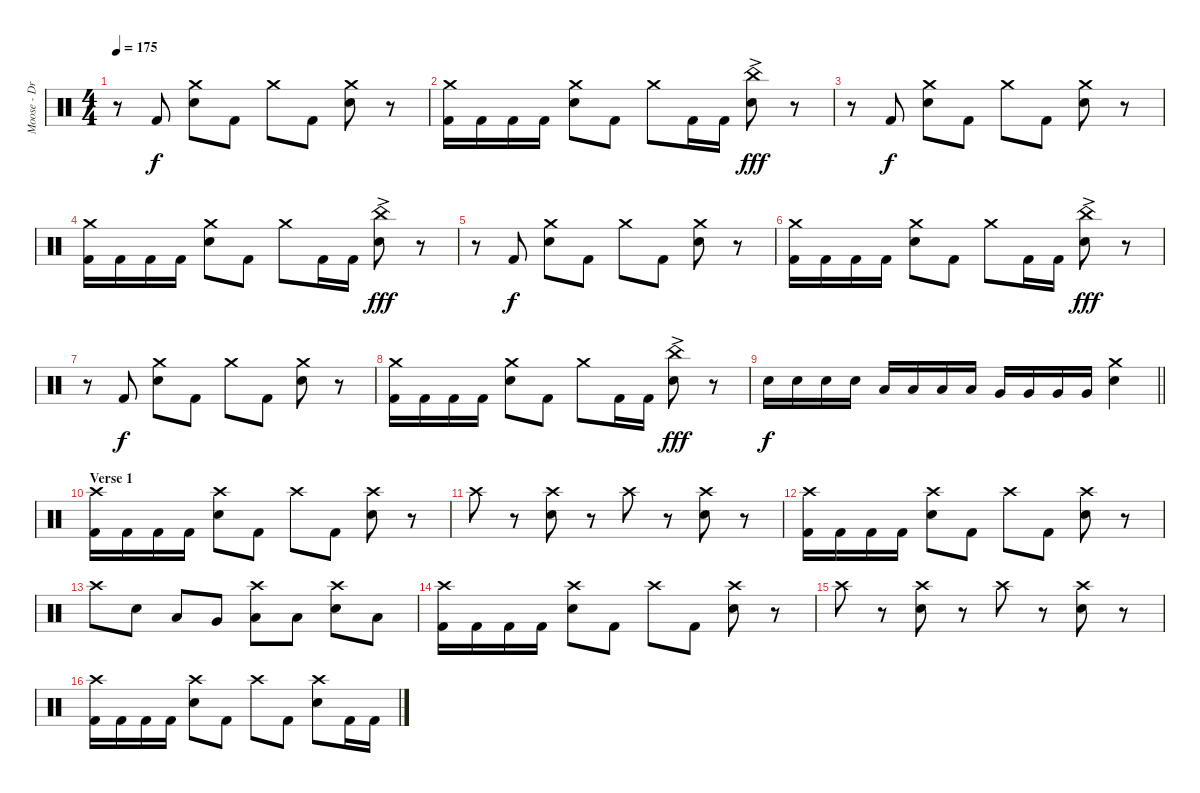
\track ("Moose - Drums" "Moose - Dr") {instrument percussion}
\staff {score}
\articulation defaults
\ts (4 4)
\tempo 175
\clef neutral
\ks c
r.8{dy fff} "Kick (hit) 2".8{dy f} ("Crash medium (hit)" "Electric Snare (hit)").8 "Kick (hit) 2".8 "Crash medium (hit)".8 "Kick (hit) 2".8 ("Crash medium (hit)" "Electric Snare (hit)").8 r.8 |
("Crash medium (hit)" "Kick (hit) 2").16 "Kick (hit) 2".16 "Kick (hit) 2".16 "Kick (hit) 2".16 ("Crash medium (hit)" "Electric Snare (hit)").8 "Kick (hit) 2".8 "Crash medium (hit)".8 "Kick (hit) 2".16 "Kick (hit) 2".16 ("China (hit)"{ac} "Electric Snare (hit)").8{dy fff} r.8 |
r.8 "Kick (hit) 2".8{dy f} ("Crash medium (hit)" "Electric Snare (hit)").8 "Kick (hit) 2".8 "Crash medium (hit)".8 "Kick (hit) 2".8 ("Crash medium (hit)" "Electric Snare (hit)").8 r.8 |
("Crash medium (hit)" "Kick (hit) 2").16 "Kick (hit) 2".16 "Kick (hit) 2".16 "Kick (hit) 2".16 ("Crash medium (hit)" "Electric Snare (hit)").8 "Kick (hit) 2".8 "Crash medium (hit)".8 "Kick (hit) 2".16 "Kick (hit) 2".16 ("China (hit)"{ac} "Electric Snare (hit)").8{dy fff} r.8 |
r.8 "Kick (hit) 2".8{dy f} ("Crash medium (hit)" "Electric Snare (hit)").8 "Kick (hit) 2".8 "Crash medium (hit)".8 "Kick (hit) 2".8 ("Crash medium (hit)" "Electric Snare (hit)").8 r.8 |
("Crash medium (hit)" "Kick (hit) 2").16 "Kick (hit) 2".16 "Kick (hit) 2".16 "Kick (hit) 2".16 ("Crash medium (hit)" "Electric Snare (hit)").8 "Kick (hit) 2".8 "Crash medium (hit)".8 "Kick (hit) 2".16 "Kick (hit) 2".16 ("China (hit)"{ac} "Electric Snare (hit)").8{dy fff} r.8 |
r.8 "Kick (hit) 2".8{dy f} ("Crash medium (hit)" "Electric Snare (hit)").8 "Kick (hit) 2".8 "Crash medium (hit)".8 "Kick (hit) 2".8 ("Crash medium (hit)" "Electric Snare (hit)").8 r.8 |
("Crash medium (hit)" "Kick (hit) 2").16 "Kick (hit) 2".16 "Kick (hit) 2".16 "Kick (hit) 2".16 ("Crash medium (hit)" "Electric Snare (hit)").8 "Kick (hit) 2".8 "Crash medium (hit)".8 "Kick (hit) 2".16 "Kick (hit) 2".16 ("China (hit)"{ac} "Electric Snare (hit)").8{dy fff} r.8 |
\barLineRight lightlight "Electric Snare (hit)".16{dy f} "Electric Snare (hit)".16 "Electric Snare (hit)".16 "Electric Snare (hit)".16 "Low Tom (hit)".16 "Low Tom (hit)".16 "Low Tom (hit)".16 "Low Tom (hit)".16 "Very Low Tom (hit)".16 "Very Low Tom (hit)".16 "Very Low Tom (hit)".16 "Very Low Tom (hit)".16
("Crash medium (hit)" "Electric Snare (hit)").4 |
\section ("" "Verse 1")
("Crash high (hit)" "Kick (hit) 2").16 "Kick (hit) 2".16 "Kick (hit) 2".16 "Kick (hit) 2".16 ("Crash high (hit)" "Electric Snare (hit)").8 "Kick (hit) 2".8 "Crash high (hit)".8 "Kick (hit) 2".8 ("Crash high (hit)" "Electric Snare (hit)").8 r.8 |
"Crash high (hit)".8 r.8 ("Crash high (hit)" "Electric Snare (hit)").8 r.8 "Crash high (hit)".8 r.8 ("Crash high (hit)" "Electric Snare (hit)").8 r.8 |
("Crash high (hit)" "Kick (hit) 2").16 "Kick (hit) 2".16 "Kick (hit) 2".16 "Kick (hit) 2".16 ("Crash high (hit)" "Electric Snare (hit)").8 "Kick (hit) 2".8 "Crash high (hit)".8 "Kick (hit) 2".8 ("Crash high (hit)" "Electric Snare (hit)").8 r.8 |
"Crash high (hit)".8 "Electric Snare (hit)".8 "Low Tom (hit)".8 "Very Low Tom (hit)".8 ("Crash high (hit)" "Low Floor Tom (hit)").8 "Low Floor Tom (hit)".8 ("Crash high (hit)" "Electric Snare (hit)").8 "Low Floor Tom (hit)".8 |
("Crash high (hit)" "Kick (hit) 2").16 "Kick (hit) 2".16 "Kick (hit) 2".16 "Kick (hit) 2".16 ("Crash high (hit)" "Electric Snare (hit)").8 "Kick (hit) 2".8 "Crash high (hit)".8 "Kick (hit) 2".8 ("Crash high (hit)" "Electric Snare (hit)").8 r.8 |
"Crash high (hit)".8 r.8 ("Crash high (hit)" "Electric Snare (hit)").8 r.8 "Crash high (hit)".8 r.8 ("Crash high (hit)" "Electric Snare (hit)").8 r.8 |
("Crash high (hit)" "Kick (hit) 2").16 "Kick (hit) 2".16 "Kick (hit) 2".16 "Kick (hit) 2".16 ("Crash high (hit)" "Electric Snare (hit)").8 "Kick (hit) 2".8 "Crash high (hit)".8 "Kick (hit) 2".8 ("Crash high (hit)" "Electric Snare (hit)").8 "Kick (hit) 2".16 "Kick (hit) 2".16
